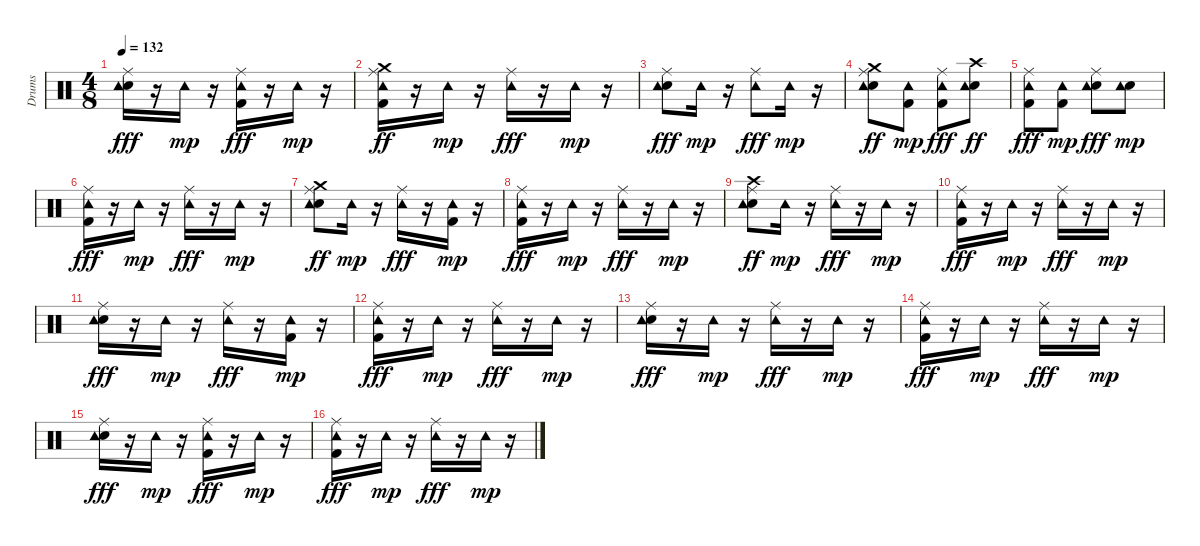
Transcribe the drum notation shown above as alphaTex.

\track ("Drums" "Drums") {instrument percussion}
\staff {score}
\articulation defaults
\ts (4 8)
\tempo 132
\clef neutral
\ks c
("Snare (hit) 2" "Ride (middle)" "Tambourine (hit)").16{dy fff} r.16 "Tambourine (hit)".16{dy mp} r.16 ("Kick (hit) 2" "Ride (middle)" "Tambourine (hit)").16{dy fff} r.16 "Tambourine (hit)".16{dy mp} r.16 |
("Kick (hit) 2" "Ride (middle)" "Tambourine (hit)" "Crash medium (hit)").16{dy ff} r.16 "Tambourine (hit)".16{dy mp} r.16 ("Ride (middle)" "Tambourine (hit)").16{dy fff} r.16 "Tambourine (hit)".16{dy mp} r.16 |
("Snare (hit) 2" "Ride (middle)" "Tambourine (hit)").8{dy fff} "Tambourine (hit)".16{dy mp} r.16 ("Ride (middle)" "Tambourine (hit)").8{dy fff} "Tambourine (hit)".16{dy mp} r.16 |
("Snare (hit) 2" "Ride (middle)" "Tambourine (hit)" "Crash medium (hit)").8{dy ff} ("Kick (hit) 2" "Tambourine (hit)").8{dy mp} ("Kick (hit) 2" "Ride (middle)" "Tambourine (hit)").8{dy fff} ("Snare (hit) 2" "Tambourine (hit)" "Crash high (hit)").8{dy ff} |
("Kick (hit) 2" "Ride (middle)" "Tambourine (hit)").8{dy fff} ("Kick (hit) 2" "Tambourine (hit)").8{dy mp} ("Snare (hit) 2" "Ride (middle)" "Tambourine (hit)").8{dy fff} ("Snare (hit) 2" "Tambourine (hit)").8{dy mp} |
("Kick (hit) 2" "Ride (middle)" "Tambourine (hit)").16{dy fff} r.16 "Tambourine (hit)".16{dy mp} r.16 ("Ride (middle)" "Tambourine (hit)").16{dy fff} r.16 "Tambourine (hit)".16{dy mp} r.16 |
("Snare (hit) 2" "Ride (middle)" "Tambourine (hit)" "Crash medium (hit)").8{dy ff} "Tambourine (hit)".16{dy mp} r.16 ("Ride (middle)" "Tambourine (hit)").16{dy fff} r.16 ("Kick (hit) 2" "Tambourine (hit)").16{dy mp} r.16 |
("Kick (hit) 2" "Ride (middle)" "Tambourine (hit)").16{dy fff} r.16 "Tambourine (hit)".16{dy mp} r.16 ("Ride (middle)" "Tambourine (hit)").16{dy fff} r.16 "Tambourine (hit)".16{dy mp} r.16 |
("Snare (hit) 2" "Ride (middle)" "Tambourine (hit)" "Crash high (hit)").8{dy ff} "Tambourine (hit)".16{dy mp} r.16 ("Ride (middle)" "Tambourine (hit)").16{dy fff} r.16 "Tambourine (hit)".16{dy mp} r.16 |
("Kick (hit) 2" "Ride (middle)" "Tambourine (hit)").16{dy fff} r.16 "Tambourine (hit)".16{dy mp} r.16 ("Ride (middle)" "Tambourine (hit)").16{dy fff} r.16 "Tambourine (hit)".16{dy mp} r.16 |
("Snare (hit) 2" "Ride (middle)" "Tambourine (hit)").16{dy fff} r.16 "Tambourine (hit)".16{dy mp} r.16 ("Ride (middle)" "Tambourine (hit)").16{dy fff} r.16 ("Kick (hit) 2" "Tambourine (hit)").16{dy mp} r.16 |
("Kick (hit) 2" "Ride (middle)" "Tambourine (hit)").16{dy fff} r.16 "Tambourine (hit)".16{dy mp} r.16 ("Ride (middle)" "Tambourine (hit)").16{dy fff} r.16 "Tambourine (hit)".16{dy mp} r.16 |
("Snare (hit) 2" "Ride (middle)" "Tambourine (hit)").16{dy fff} r.16 "Tambourine (hit)".16{dy mp} r.16 ("Ride (middle)" "Tambourine (hit)").16{dy fff} r.16 "Tambourine (hit)".16{dy mp} r.16 |
("Kick (hit) 2" "Ride (middle)" "Tambourine (hit)").16{dy fff} r.16 "Tambourine (hit)".16{dy mp} r.16 ("Ride (middle)" "Tambourine (hit)").16{dy fff} r.16 "Tambourine (hit)".16{dy mp} r.16 |
("Snare (hit) 2" "Ride (middle)" "Tambourine (hit)").16{dy fff} r.16 "Tambourine (hit)".16{dy mp} r.16 ("Kick (hit) 2" "Ride (middle)" "Tambourine (hit)").16{dy fff} r.16 "Tambourine (hit)".16{dy mp} r.16 |
("Kick (hit) 2" "Ride (middle)" "Tambourine (hit)").16{dy fff} r.16 "Tambourine (hit)".16{dy mp} r.16 ("Ride (middle)" "Tambourine (hit)").16{dy fff} r.16 "Tambourine (hit)".16{dy mp} r.16
